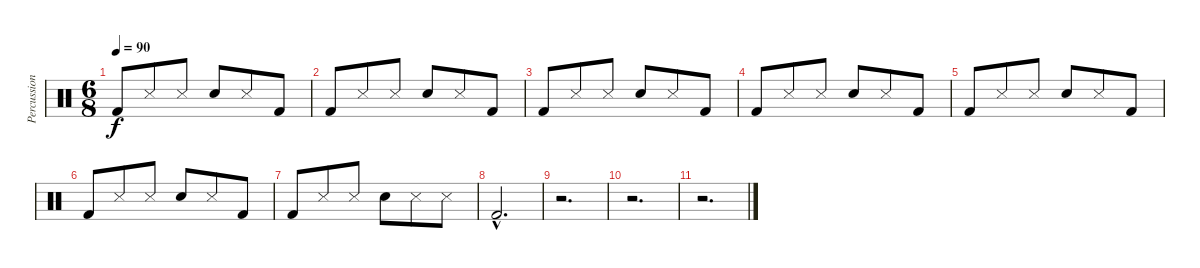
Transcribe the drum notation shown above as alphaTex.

\track ("Percussion" "Percussion") {instrument percussion}
\staff {score}
\articulation defaults
\ts (6 8)
\tempo 90
\clef neutral
\ks c "Kick (hit) 2".8{dy f} "Snare (side stick) 3".8 "Snare (side stick) 3".8 "Electric Snare (hit)".8 "Snare (side stick) 3".8 "Kick (hit) 2".8
|
"Kick (hit) 2".8 "Snare (side stick) 3".8 "Snare (side stick) 3".8 "Electric Snare (hit)".8 "Snare (side stick) 3".8 "Kick (hit) 2".8 |
"Kick (hit) 2".8 "Snare (side stick) 3".8 "Snare (side stick) 3".8 "Electric Snare (hit)".8 "Snare (side stick) 3".8 "Kick (hit) 2".8 |
"Kick (hit) 2".8 "Snare (side stick) 3".8 "Snare (side stick) 3".8 "Electric Snare (hit)".8 "Snare (side stick) 3".8 "Kick (hit) 2".8 |
"Kick (hit) 2".8 "Snare (side stick) 3".8 "Snare (side stick) 3".8 "Electric Snare (hit)".8 "Snare (side stick) 3".8 "Kick (hit) 2".8 |
"Kick (hit) 2".8 "Snare (side stick) 3".8 "Snare (side stick) 3".8 "Electric Snare (hit)".8 "Snare (side stick) 3".8 "Kick (hit) 2".8 |
"Kick (hit) 2".8 "Snare (side stick) 3".8 "Snare (side stick) 3".8 "Electric Snare (hit)".8 "Snare (side stick) 3".8 "Snare (side stick) 3".8 |
"Kick (hit) 2"{hac}.2{d} |
r.2{d} |
r.2{d} |
r.2{d}
